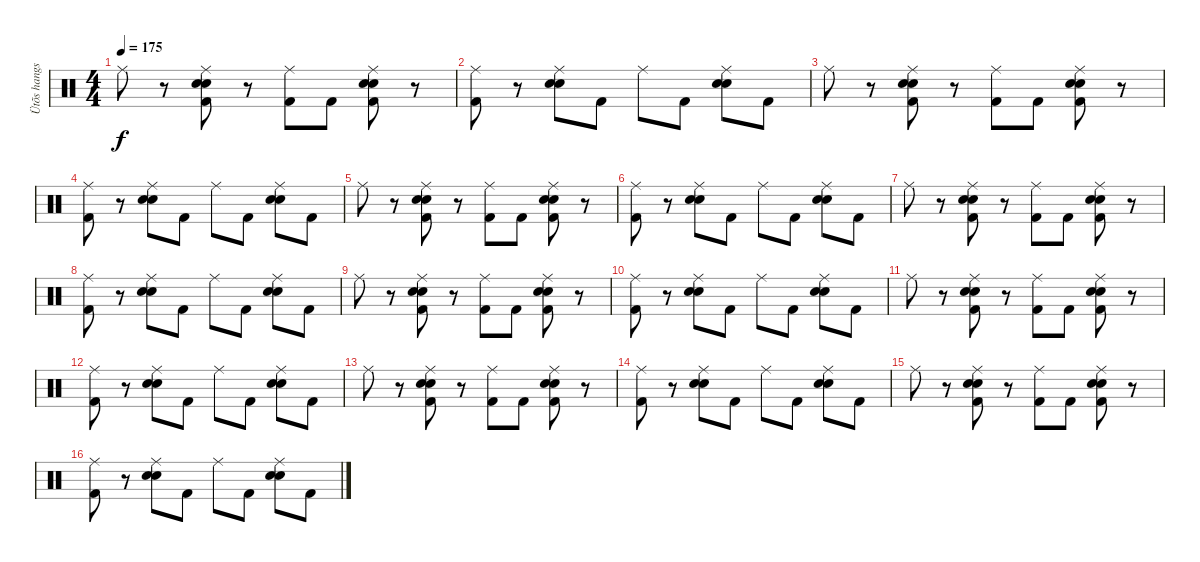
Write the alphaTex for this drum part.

\track ("Ütõs hangszer" "Ütõs hangs") {instrument percussion}
\staff {score}
\articulation defaults
\ts (4 4)
\tempo 175
\clef neutral
\ks c "Ride (middle)".8{dy f}
r.8 ("Hand Clap (hit)" "Ride (middle)" "Snare (hit) 2" "Kick (hit) 2").8 r.8 ("Ride (middle)" "Kick (hit) 2").8 "Kick (hit) 2".8 ("Hand Clap (hit)" "Ride (middle)" "Snare (hit) 2" "Kick (hit) 2").8 r.8 |
("Ride (middle)" "Kick (hit) 2").8 r.8 ("Hand Clap (hit)" "Ride (middle)" "Snare (hit) 2").8 "Kick (hit) 2".8 "Ride (middle)".8 "Kick (hit) 2".8 ("Hand Clap (hit)" "Ride (middle)" "Snare (hit) 2").8 "Kick (hit) 2".8 |
"Ride (middle)".8 r.8 ("Hand Clap (hit)" "Ride (middle)" "Snare (hit) 2" "Kick (hit) 2").8 r.8 ("Ride (middle)" "Kick (hit) 2").8 "Kick (hit) 2".8 ("Hand Clap (hit)" "Ride (middle)" "Snare (hit) 2" "Kick (hit) 2").8 r.8 |
("Ride (middle)" "Kick (hit) 2").8 r.8 ("Hand Clap (hit)" "Ride (middle)" "Snare (hit) 2").8 "Kick (hit) 2".8 "Ride (middle)".8 "Kick (hit) 2".8 ("Hand Clap (hit)" "Ride (middle)" "Snare (hit) 2").8 "Kick (hit) 2".8 |
"Ride (middle)".8 r.8 ("Hand Clap (hit)" "Ride (middle)" "Snare (hit) 2" "Kick (hit) 2").8 r.8 ("Ride (middle)" "Kick (hit) 2").8 "Kick (hit) 2".8 ("Hand Clap (hit)" "Ride (middle)" "Snare (hit) 2" "Kick (hit) 2").8 r.8 |
("Ride (middle)" "Kick (hit) 2").8 r.8 ("Hand Clap (hit)" "Ride (middle)" "Snare (hit) 2").8 "Kick (hit) 2".8 "Ride (middle)".8 "Kick (hit) 2".8 ("Hand Clap (hit)" "Ride (middle)" "Snare (hit) 2").8 "Kick (hit) 2".8 |
"Ride (middle)".8 r.8 ("Hand Clap (hit)" "Ride (middle)" "Snare (hit) 2" "Kick (hit) 2").8 r.8 ("Ride (middle)" "Kick (hit) 2").8 "Kick (hit) 2".8 ("Hand Clap (hit)" "Ride (middle)" "Snare (hit) 2" "Kick (hit) 2").8 r.8 |
("Ride (middle)" "Kick (hit) 2").8 r.8 ("Hand Clap (hit)" "Ride (middle)" "Snare (hit) 2").8 "Kick (hit) 2".8 "Ride (middle)".8 "Kick (hit) 2".8 ("Hand Clap (hit)" "Ride (middle)" "Snare (hit) 2").8 "Kick (hit) 2".8 |
"Ride (middle)".8 r.8 ("Hand Clap (hit)" "Ride (middle)" "Snare (hit) 2" "Kick (hit) 2").8 r.8 ("Ride (middle)" "Kick (hit) 2").8 "Kick (hit) 2".8 ("Hand Clap (hit)" "Ride (middle)" "Snare (hit) 2" "Kick (hit) 2").8 r.8 |
("Ride (middle)" "Kick (hit) 2").8 r.8 ("Hand Clap (hit)" "Ride (middle)" "Snare (hit) 2").8 "Kick (hit) 2".8 "Ride (middle)".8 "Kick (hit) 2".8 ("Hand Clap (hit)" "Ride (middle)" "Snare (hit) 2").8 "Kick (hit) 2".8 |
"Ride (middle)".8 r.8 ("Hand Clap (hit)" "Ride (middle)" "Snare (hit) 2" "Kick (hit) 2").8 r.8 ("Ride (middle)" "Kick (hit) 2").8 "Kick (hit) 2".8 ("Hand Clap (hit)" "Ride (middle)" "Snare (hit) 2" "Kick (hit) 2").8 r.8 |
("Ride (middle)" "Kick (hit) 2").8 r.8 ("Hand Clap (hit)" "Ride (middle)" "Snare (hit) 2").8 "Kick (hit) 2".8 "Ride (middle)".8 "Kick (hit) 2".8 ("Hand Clap (hit)" "Ride (middle)" "Snare (hit) 2").8 "Kick (hit) 2".8 |
"Ride (middle)".8 r.8 ("Hand Clap (hit)" "Ride (middle)" "Snare (hit) 2" "Kick (hit) 2").8 r.8 ("Ride (middle)" "Kick (hit) 2").8 "Kick (hit) 2".8 ("Hand Clap (hit)" "Ride (middle)" "Snare (hit) 2" "Kick (hit) 2").8 r.8 |
("Ride (middle)" "Kick (hit) 2").8 r.8 ("Hand Clap (hit)" "Ride (middle)" "Snare (hit) 2").8 "Kick (hit) 2".8 "Ride (middle)".8 "Kick (hit) 2".8 ("Hand Clap (hit)" "Ride (middle)" "Snare (hit) 2").8 "Kick (hit) 2".8 |
"Ride (middle)".8 r.8 ("Hand Clap (hit)" "Ride (middle)" "Snare (hit) 2" "Kick (hit) 2").8 r.8 ("Ride (middle)" "Kick (hit) 2").8 "Kick (hit) 2".8 ("Hand Clap (hit)" "Ride (middle)" "Snare (hit) 2" "Kick (hit) 2").8 r.8 |
("Ride (middle)" "Kick (hit) 2").8 r.8 ("Hand Clap (hit)" "Ride (middle)" "Snare (hit) 2").8 "Kick (hit) 2".8 "Ride (middle)".8 "Kick (hit) 2".8 ("Hand Clap (hit)" "Ride (middle)" "Snare (hit) 2").8 "Kick (hit) 2".8
